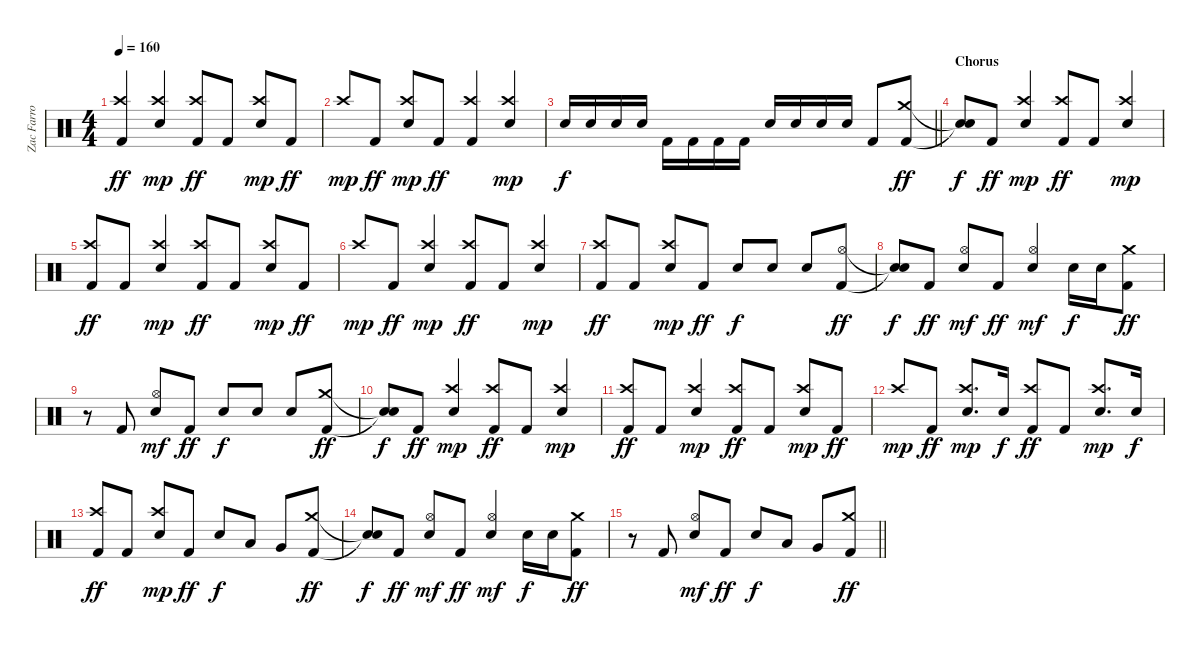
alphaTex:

\track ("Zac Farro" "Zac Farro") {instrument percussion}
\staff {score}
\articulation defaults
\ts (4 4)
\tempo 160
\clef neutral
\ks c
("Crash high (hit)" "Kick (hit) 2").4{dy ff beam Up} ("Crash high (hit)" "Snare (hit) 2").4{dy mp beam Up} ("Crash high (hit)" "Kick (hit) 2").8{dy ff beam Up} "Kick (hit) 2".8{beam Up} ("Crash high (hit)" "Snare (hit) 2").8{dy mp beam Up} "Kick (hit) 2".8{dy ff beam Up} |
"Crash high (hit)".8{dy mp beam Up} "Kick (hit) 2".8{dy ff beam Up} ("Crash high (hit)" "Snare (hit) 2").8{dy mp beam Up} "Kick (hit) 2".8{dy ff beam Up} ("Crash high (hit)" "Kick (hit) 2").4{beam Up} ("Crash high (hit)" "Snare (hit) 2").4{dy mp beam Up} |
\barLineRight lightlight "Snare (hit) 2".16{dy f beam Up} "Snare (hit) 2".16{beam Up} "Snare (hit) 2".16{beam Up} "Snare (hit) 2".16{beam Up} "Kick (hit) 2".16{beam Down} "Kick (hit) 2".16{beam Down} "Kick (hit) 2".16{beam Down} "Kick (hit) 2".16{beam Down} "Snare (hit) 2".16{beam Up} "Snare (hit) 2".16{beam Up} "Snare (hit) 2".16{beam Up} "Snare (hit) 2".16{beam Up} "Kick (hit) 2".8{beam Up}
("Crash medium (hit)" "Kick (hit) 2").8{dy ff beam Up} |
\section ("" "Chorus")
("Snare (hit)"{t} "Snare (hit)"{t}).8{dy f beam Up} "Kick (hit) 2".8{dy ff} ("Crash high (hit)" "Snare (hit) 2").4{dy mp beam Up} ("Crash high (hit)" "Kick (hit) 2").8{dy ff beam Up} "Kick (hit) 2".8{beam Up} ("Crash high (hit)" "Snare (hit) 2").4{dy mp beam Up} |
("Crash high (hit)" "Kick (hit) 2").8{dy ff beam Up} "Kick (hit) 2".8{beam Up} ("Crash high (hit)" "Snare (hit) 2").4{dy mp beam Up} ("Crash high (hit)" "Kick (hit) 2").8{dy ff beam Up} "Kick (hit) 2".8{beam Up} ("Crash high (hit)" "Snare (hit) 2").8{dy mp beam Up} "Kick (hit) 2".8{dy ff beam Up} |
"Crash high (hit)".8{dy mp beam Up} "Kick (hit) 2".8{dy ff beam Up} ("Crash high (hit)" "Snare (hit) 2").4{dy mp beam Up} ("Crash high (hit)" "Kick (hit) 2").8{dy ff beam Up} "Kick (hit) 2".8{beam Up} ("Crash high (hit)" "Snare (hit) 2").4{dy mp beam Up} |
("Crash high (hit)" "Kick (hit) 2").8{dy ff beam Up} "Kick (hit) 2".8{beam Up} ("Crash high (hit)" "Snare (hit) 2").8{dy mp beam Up} "Kick (hit) 2".8{dy ff beam Up} "Snare (hit) 2".8{dy f beam Up} "Snare (hit) 2".8{beam Up} "Snare (hit) 2".8{beam Up} ("Hi-Hat (open)" "Kick (hit) 2").8{dy ff beam Up} |
("Snare (hit)"{t} "Snare (hit)"{t}).8{dy f beam Up} "Kick (hit) 2".8{dy ff} ("Hi-Hat (open)" "Snare (hit) 2").8{dy mf beam Up} "Kick (hit) 2".8{dy ff beam Up} ("Hi-Hat (open)" "Snare (hit) 2").4{dy mf beam Up} "Snare (hit) 2".16{dy f beam Down} "Snare (hit) 2".16{beam Down} ("Crash medium (hit)" "Kick (hit) 2").8{dy ff beam Down} |
r.8{beam Up} "Kick (hit) 2".8{beam Down} ("Hi-Hat (open)" "Snare (hit) 2").8{dy mf beam Up} "Kick (hit) 2".8{dy ff beam Up} "Snare (hit) 2".8{dy f beam Up} "Snare (hit) 2".8{beam Up} "Snare (hit) 2".8{beam Up} ("Crash medium (hit)" "Kick (hit) 2").8{dy ff beam Up} |
("Snare (hit)"{t} "Snare (hit)"{t}).8{dy f beam Up} "Kick (hit) 2".8{dy ff} ("Crash high (hit)" "Snare (hit) 2").4{dy mp beam Up} ("Crash high (hit)" "Kick (hit) 2").8{dy ff beam Up} "Kick (hit) 2".8{beam Up} ("Crash high (hit)" "Snare (hit) 2").4{dy mp beam Up} |
("Crash high (hit)" "Kick (hit) 2").8{dy ff beam Up} "Kick (hit) 2".8{beam Up} ("Crash high (hit)" "Snare (hit) 2").4{dy mp beam Up} ("Crash high (hit)" "Kick (hit) 2").8{dy ff beam Up} "Kick (hit) 2".8{beam Up} ("Crash high (hit)" "Snare (hit) 2").8{dy mp beam Up} "Kick (hit) 2".8{dy ff beam Up} |
"Crash high (hit)".8{dy mp beam Up} "Kick (hit) 2".8{dy ff beam Up} ("Crash high (hit)" "Snare (hit) 2").8{d dy mp beam Up} "Snare (hit) 2".16{dy f beam Up} ("Crash high (hit)" "Kick (hit) 2").8{dy ff beam Up} "Kick (hit) 2".8{beam Up} ("Crash high (hit)" "Snare (hit) 2").8{d dy mp beam Up} "Snare (hit) 2".16{dy f beam Up} |
("Crash high (hit)" "Kick (hit) 2").8{dy ff beam Up} "Kick (hit) 2".8{beam Up} ("Crash high (hit)" "Snare (hit) 2").8{dy mp beam Up} "Kick (hit) 2".8{dy ff beam Up} "Snare (hit) 2".8{dy f beam Up} "Low Tom (hit)".8{beam Up} "Very Low Tom (hit)".8{beam Up} ("Crash medium (hit)" "Kick (hit) 2").8{dy ff beam Up} |
("Snare (hit)"{t} "Snare (hit)"{t}).8{dy f beam Up} "Kick (hit) 2".8{dy ff} ("Hi-Hat (open)" "Snare (hit) 2").8{dy mf beam Up} "Kick (hit) 2".8{dy ff beam Up} ("Hi-Hat (open)" "Snare (hit) 2").4{dy mf beam Up} "Snare (hit) 2".16{dy f beam Down} "Snare (hit) 2".16{beam Down} ("Crash medium (hit)" "Kick (hit) 2").8{dy ff beam Down} |
\barLineRight lightlight
r.8{beam Up} "Kick (hit) 2".8{beam Down} ("Hi-Hat (open)" "Snare (hit) 2").8{dy mf beam Up} "Kick (hit) 2".8{dy ff beam Up} "Snare (hit) 2".8{dy f beam Up} "Low Tom (hit)".8{beam Up} "Very Low Tom (hit)".8{beam Up} ("Crash medium (hit)" "Kick (hit) 2").8{dy ff beam Up}
